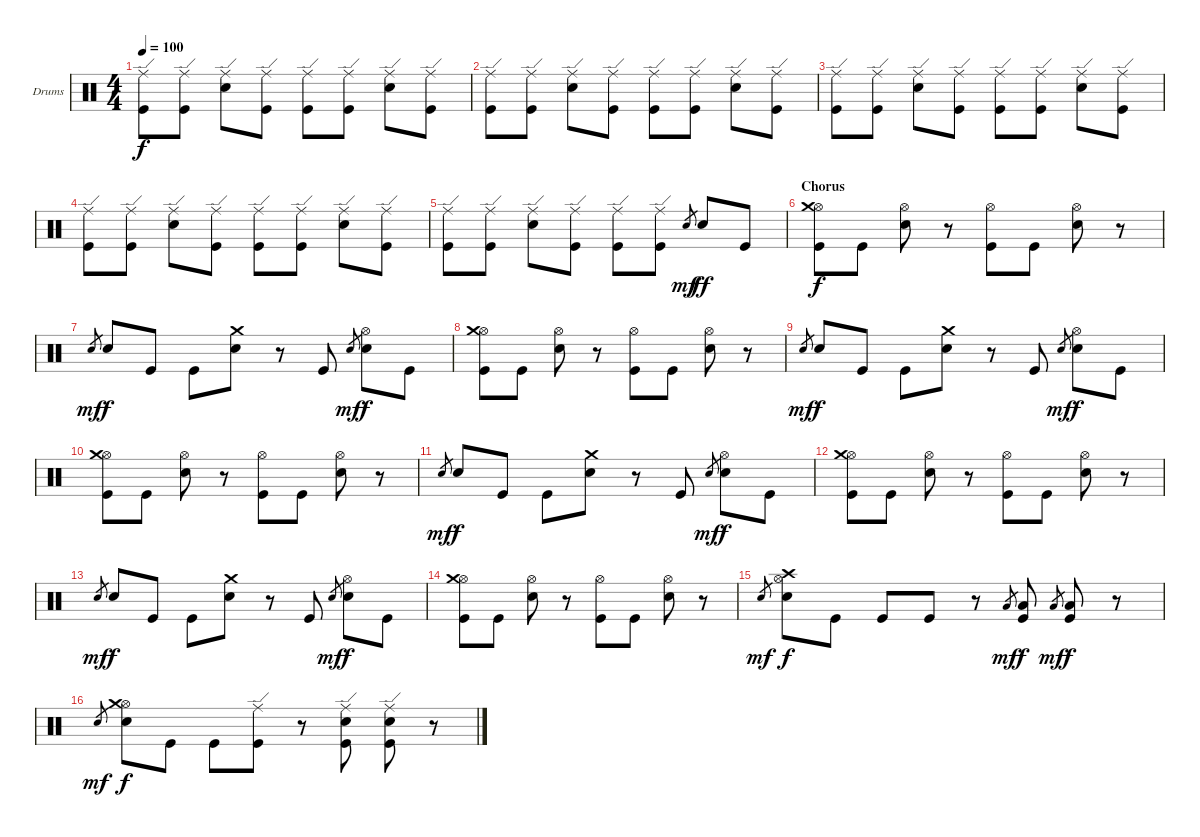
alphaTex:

\defaultSystemsLayout 4
\bracketExtendMode groupsimilarinstruments
\firstSystemTrackNameOrientation horizontal
\otherSystemsTrackNameOrientation horizontal
\track ("Drumkit" "Drums") {instrument percussion}
\staff {score}
\articulation defaults
\ts (4 4)
\tempo 100
\clef neutral
\scale
1.02648
\ks c
("Ride (edge)" "Kick (hit)").8{dy f} ("Ride (edge)" "Kick (hit)").8 ("Ride (edge)" "Snare (hit) 2").8 ("Ride (edge)" "Kick (hit)").8 ("Ride (edge)" "Kick (hit)").8 ("Ride (edge)" "Kick (hit)").8 ("Ride (edge)" "Snare (hit) 2").8 ("Ride (edge)" "Kick (hit)").8 |
\scale
0.973518 ("Ride (edge)" "Kick (hit)").8 ("Ride (edge)" "Kick (hit)").8 ("Ride (edge)" "Snare (hit) 2").8 ("Ride (edge)" "Kick (hit)").8 ("Ride (edge)" "Kick (hit)").8 ("Ride (edge)" "Kick (hit)").8 ("Ride (edge)" "Snare (hit) 2").8 ("Ride (edge)" "Kick (hit)").8 |
\scale
1.02648 ("Ride (edge)" "Kick (hit)").8 ("Ride (edge)" "Kick (hit)").8 ("Ride (edge)" "Snare (hit) 2").8 ("Ride (edge)" "Kick (hit)").8 ("Ride (edge)" "Kick (hit)").8 ("Ride (edge)" "Kick (hit)").8 ("Ride (edge)" "Snare (hit) 2").8 ("Ride (edge)" "Kick (hit)").8 |
\scale
0.973518 ("Ride (edge)" "Kick (hit)").8 ("Ride (edge)" "Kick (hit)").8 ("Ride (edge)" "Snare (hit) 2").8 ("Ride (edge)" "Kick (hit)").8 ("Ride (edge)" "Kick (hit)").8 ("Ride (edge)" "Kick (hit)").8 ("Ride (edge)" "Snare (hit) 2").8 ("Ride (edge)" "Kick (hit)").8 |
\scale
1.02648 ("Ride (edge)" "Kick (hit)").8 ("Ride (edge)" "Kick (hit)").8 ("Ride (edge)" "Snare (hit) 2").8 ("Ride (edge)" "Kick (hit)").8 ("Ride (edge)" "Kick (hit)").8 ("Ride (edge)" "Kick (hit)").8 "Snare (hit) 2".8{gr dy mf} "Snare (hit) 2".8{dy ff} "Kick (hit)".8 |
\section ("" "Chorus")
\scale
0.973518 ("Hi-Hat (open)" "Crash medium (hit)" "Kick (hit)").8{dy f} "Kick (hit)".8 ("Hi-Hat (open)" "Snare (hit) 2").8 r.8 ("Hi-Hat (open)" "Kick (hit)").8 "Kick (hit)".8 ("Hi-Hat (open)" "Snare (hit) 2").8 r.8 |
\scale
1.02648 "Snare (hit) 2".8{gr dy mf} "Snare (hit) 2".8{dy f} "Kick (hit)".8 "Kick (hit)".8 ("Crash medium (hit)" "Snare (hit) 2").8 r.8 "Kick (hit)".8 "Snare (hit) 2".8{gr dy mf} ("Hi-Hat (open)" "Snare (hit) 2").8{dy f} "Kick (hit)".8 |
\scale
0.973518 ("Hi-Hat (open)" "Crash medium (hit)" "Kick (hit)").8 "Kick (hit)".8 ("Hi-Hat (open)" "Snare (hit) 2").8 r.8 ("Hi-Hat (open)" "Kick (hit)").8 "Kick (hit)".8 ("Hi-Hat (open)" "Snare (hit) 2").8 r.8 |
\scale
1.02648 "Snare (hit) 2".8{gr dy mf} "Snare (hit) 2".8{dy f} "Kick (hit)".8 "Kick (hit)".8 ("Crash medium (hit)" "Snare (hit) 2").8 r.8 "Kick (hit)".8 "Snare (hit) 2".8{gr dy mf} ("Hi-Hat (open)" "Snare (hit) 2").8{dy f} "Kick (hit)".8 |
\scale
0.973518 ("Hi-Hat (open)" "Crash medium (hit)" "Kick (hit)").8 "Kick (hit)".8 ("Hi-Hat (open)" "Snare (hit) 2").8 r.8 ("Hi-Hat (open)" "Kick (hit)").8 "Kick (hit)".8 ("Hi-Hat (open)" "Snare (hit) 2").8 r.8 |
\scale
1.02648 "Snare (hit) 2".8{gr dy mf} "Snare (hit) 2".8{dy f} "Kick (hit)".8 "Kick (hit)".8 ("Crash medium (hit)" "Snare (hit) 2").8 r.8 "Kick (hit)".8 "Snare (hit) 2".8{gr dy mf} ("Hi-Hat (open)" "Snare (hit) 2").8{dy f} "Kick (hit)".8 |
\scale
0.973518 ("Hi-Hat (open)" "Crash medium (hit)" "Kick (hit)").8 "Kick (hit)".8 ("Hi-Hat (open)" "Snare (hit) 2").8 r.8 ("Hi-Hat (open)" "Kick (hit)").8 "Kick (hit)".8 ("Hi-Hat (open)" "Snare (hit) 2").8 r.8 |
\scale
1.02648 "Snare (hit) 2".8{gr dy mf} "Snare (hit) 2".8{dy f} "Kick (hit)".8 "Kick (hit)".8 ("Crash medium (hit)" "Snare (hit) 2").8 r.8 "Kick (hit)".8 "Snare (hit) 2".8{gr dy mf} ("Hi-Hat (open)" "Snare (hit) 2").8{dy f} "Kick (hit)".8 |
\scale
0.973518 ("Hi-Hat (open)" "Crash medium (hit)" "Kick (hit)").8 "Kick (hit)".8 ("Hi-Hat (open)" "Snare (hit) 2").8 r.8 ("Hi-Hat (open)" "Kick (hit)").8 "Kick (hit)".8 ("Hi-Hat (open)" "Snare (hit) 2").8 r.8 |
\scale
1.02648 "Snare (hit) 2".8{gr dy mf} ("Hi-Hat (open)" "Crash high (hit)" "Snare (hit) 2").8{dy f} "Kick (hit)".8 "Kick (hit)".8 "Kick (hit)".8 r.8 "Low Tom (hit)".8{gr dy mf} ("Low Tom (hit)" "Kick (hit)").8{dy f} "Low Tom (hit)".8{gr dy mf} ("Low Tom (hit)" "Kick (hit)").8{dy f} r.8 |
\scale
0.973518 "Snare (hit) 2".8{gr dy mf} ("Hi-Hat (open)" "Crash medium (hit)" "Snare (hit) 2").8{dy f} "Kick (hit)".8 "Kick (hit)".8 ("Ride (edge)" "Kick (hit)").8 r.8 ("Ride (edge)" "Snare (hit) 2" "Kick (hit)").8 ("Ride (edge)" "Snare (hit) 2" "Kick (hit)").8 r.8
